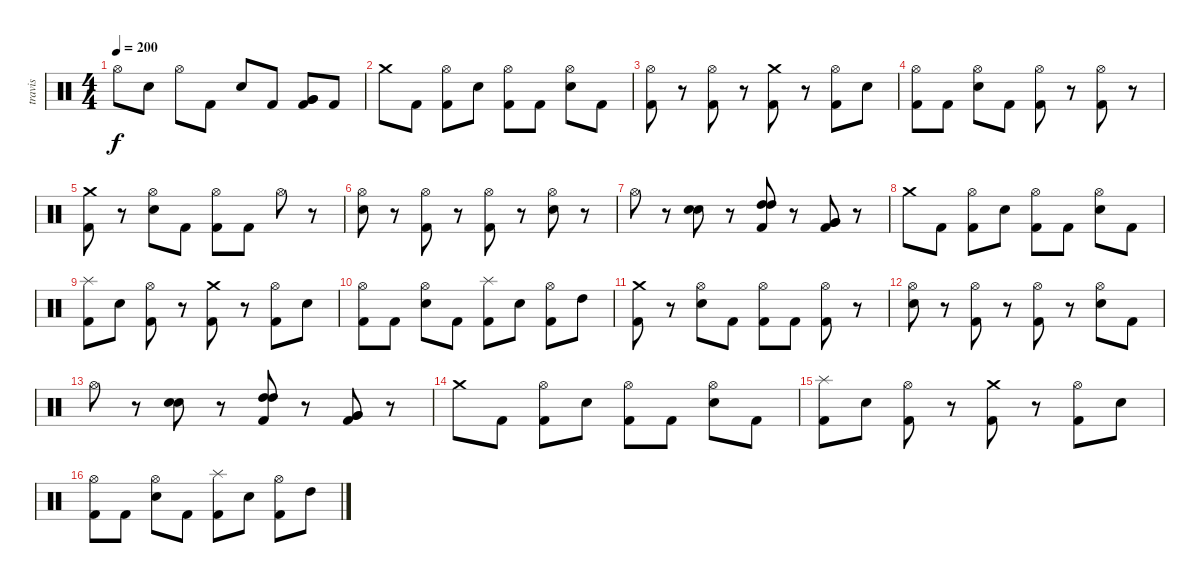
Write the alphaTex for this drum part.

\track ("travis" "travis") {instrument percussion}
\staff {score}
\articulation defaults
\ts (4 4)
\tempo 200
\clef neutral
\ks c "Hi-Hat (open)".8{dy f} "Electric Snare (hit)".8 "Hi-Hat (open)".8 "Kick (hit) 2".8 "Electric Snare (hit)".8 "Kick (hit) 2".8
("Very Low Tom (hit)" "Very Low Tom (hit)" "Kick (hit) 2").8 "Kick (hit) 2".8 |
"Crash medium (hit)".8 "Kick (hit) 2".8 ("Hi-Hat (open)" "Kick (hit) 2").8 "Electric Snare (hit)".8 ("Hi-Hat (open)" "Kick (hit) 2").8 "Kick (hit) 2".8 ("Hi-Hat (open)" "Electric Snare (hit)").8 "Kick (hit) 2".8 |
("Hi-Hat (open)" "Kick (hit) 2").8 r.8 ("Hi-Hat (open)" "Kick (hit) 2").8 r.8 ("Crash medium (hit)" "Kick (hit) 2").8 r.8 ("Hi-Hat (open)" "Kick (hit) 2").8 "Electric Snare (hit)".8 |
("Hi-Hat (open)" "Kick (hit) 2").8 "Kick (hit) 2".8 ("Hi-Hat (open)" "Electric Snare (hit)").8 "Kick (hit) 2".8 ("Hi-Hat (open)" "Kick (hit) 2").8 r.8 ("Hi-Hat (open)" "Kick (hit) 2").8 r.8 |
("Crash medium (hit)" "Kick (hit) 2").8 r.8 ("Hi-Hat (open)" "Electric Snare (hit)").8 "Kick (hit) 2".8 ("Hi-Hat (open)" "Kick (hit) 2").8 "Kick (hit) 2".8 "Hi-Hat (open)".8 r.8 |
("Hi-Hat (open)" "Electric Snare (hit)").8 r.8 ("Hi-Hat (open)" "Kick (hit) 2").8 r.8 ("Hi-Hat (open)" "Kick (hit) 2").8 r.8 ("Hi-Hat (open)" "Electric Snare (hit)").8 r.8 |
"Hi-Hat (open)".8 r.8 ("Electric Snare (hit)" "Electric Snare (hit)").8 r.8 ("Kick (hit) 2" "High Tom (hit)" "High Tom (hit)").8 r.8 ("Very Low Tom (hit)" "Very Low Tom (hit)" "Kick (hit) 2").8 r.8 |
"Crash medium (hit)".8 "Kick (hit) 2".8 ("Hi-Hat (open)" "Kick (hit) 2").8 "Electric Snare (hit)".8 ("Hi-Hat (open)" "Kick (hit) 2").8 "Kick (hit) 2".8 ("Hi-Hat (open)" "Electric Snare (hit)").8 "Kick (hit) 2".8 |
("Splash (hit)" "Kick (hit) 2").8 "Electric Snare (hit)".8 ("Hi-Hat (open)" "Kick (hit) 2").8 r.8 ("Crash medium (hit)" "Kick (hit) 2").8 r.8 ("Hi-Hat (open)" "Kick (hit) 2").8 "Electric Snare (hit)".8 |
("Hi-Hat (open)" "Kick (hit) 2").8 "Kick (hit) 2".8 ("Hi-Hat (open)" "Electric Snare (hit)").8 "Kick (hit) 2".8 ("Splash (hit)" "Kick (hit) 2").8 "Electric Snare (hit)".8 ("Hi-Hat (open)" "Kick (hit) 2").8 "High Tom (hit)".8 |
("Crash medium (hit)" "Kick (hit) 2").8 r.8 ("Hi-Hat (open)" "Electric Snare (hit)").8 "Kick (hit) 2".8 ("Hi-Hat (open)" "Kick (hit) 2").8 "Kick (hit) 2".8 ("Hi-Hat (open)" "Kick (hit) 2").8 r.8 |
("Hi-Hat (open)" "Electric Snare (hit)").8 r.8 ("Hi-Hat (open)" "Kick (hit) 2").8 r.8 ("Hi-Hat (open)" "Kick (hit) 2").8 r.8 ("Hi-Hat (open)" "Electric Snare (hit)").8 "Kick (hit) 2".8 |
"Hi-Hat (open)".8 r.8 ("Electric Snare (hit)" "Electric Snare (hit)").8 r.8 ("Kick (hit) 2" "High Tom (hit)" "High Tom (hit)").8 r.8 ("Very Low Tom (hit)" "Very Low Tom (hit)" "Kick (hit) 2").8 r.8 |
"Crash medium (hit)".8 "Kick (hit) 2".8 ("Hi-Hat (open)" "Kick (hit) 2").8 "Electric Snare (hit)".8 ("Hi-Hat (open)" "Kick (hit) 2").8 "Kick (hit) 2".8 ("Hi-Hat (open)" "Electric Snare (hit)").8 "Kick (hit) 2".8 |
("Splash (hit)" "Kick (hit) 2").8 "Electric Snare (hit)".8 ("Hi-Hat (open)" "Kick (hit) 2").8 r.8 ("Crash medium (hit)" "Kick (hit) 2").8 r.8 ("Hi-Hat (open)" "Kick (hit) 2").8 "Electric Snare (hit)".8 |
("Hi-Hat (open)" "Kick (hit) 2").8 "Kick (hit) 2".8 ("Hi-Hat (open)" "Electric Snare (hit)").8 "Kick (hit) 2".8 ("Splash (hit)" "Kick (hit) 2").8 "Electric Snare (hit)".8 ("Hi-Hat (open)" "Kick (hit) 2").8 "High Tom (hit)".8
